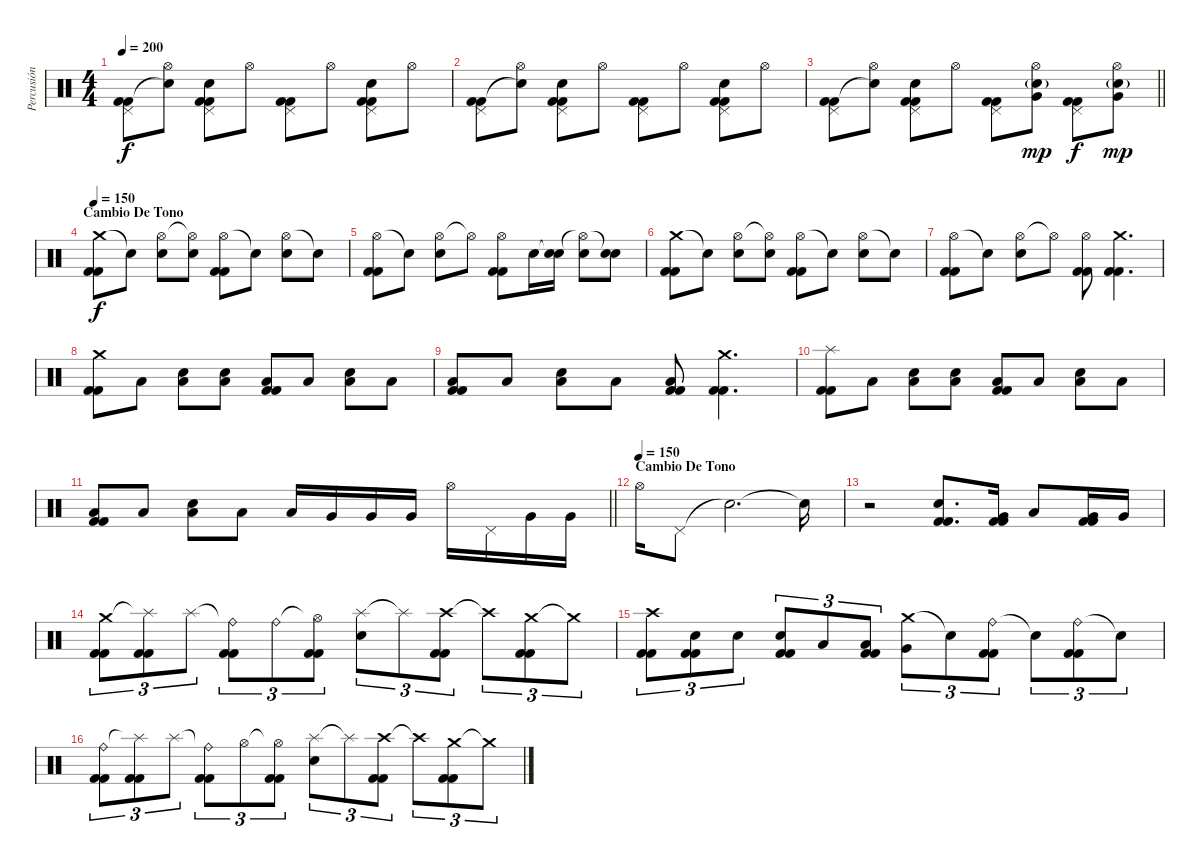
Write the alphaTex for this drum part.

\track ("Percusión" "Percusión") {instrument percussion}
\staff {score}
\articulation defaults
\ts (4 4)
\tempo 200
\clef neutral
\ks c
("Pedal Hi-Hat (hit)" "Kick (hit) 2" "Kick (hit) 2").8{dy f} ("Hi-Hat (open)" "Snare (hit)"{t}).8 ("Pedal Hi-Hat (hit)" "Electric Snare (hit)" "Kick (hit) 2" "Kick (hit) 2").8 "Hi-Hat (open)".8 ("Pedal Hi-Hat (hit)" "Kick (hit) 2" "Kick (hit) 2").8 "Hi-Hat (open)".8 ("Pedal Hi-Hat (hit)" "Electric Snare (hit)" "Kick (hit) 2" "Kick (hit) 2").8 "Hi-Hat (open)".8 |
("Pedal Hi-Hat (hit)" "Kick (hit) 2" "Kick (hit) 2").8 ("Hi-Hat (open)" "Snare (hit)"{t}).8 ("Pedal Hi-Hat (hit)" "Electric Snare (hit)" "Kick (hit) 2" "Kick (hit) 2").8 "Hi-Hat (open)".8 ("Pedal Hi-Hat (hit)" "Kick (hit) 2" "Kick (hit) 2").8 "Hi-Hat (open)".8 ("Pedal Hi-Hat (hit)" "Electric Snare (hit)" "Kick (hit) 2" "Kick (hit) 2").8 "Hi-Hat (open)".8 |
\barLineRight lightlight
("Pedal Hi-Hat (hit)" "Kick (hit) 2" "Kick (hit) 2").8 ("Hi-Hat (open)" "Snare (hit)"{t}).8 ("Pedal Hi-Hat (hit)" "Electric Snare (hit)" "Kick (hit) 2" "Kick (hit) 2").8 "Hi-Hat (open)".8 ("Pedal Hi-Hat (hit)" "Kick (hit) 2" "Kick (hit) 2").8 ("Hi-Hat (open)" "Very Low Tom (hit)" "Electric Snare (hit)"{g}).8{dy mp} ("Pedal Hi-Hat (hit)" "Kick (hit) 2" "Kick (hit) 2").8{dy f} ("Hi-Hat (open)" "Very Low Tom (hit)" "Electric Snare (hit)"{g}).8{dy mp} |
\section ("" "Cambio De Tono")
\tempo 150
("Crash medium (hit)" "Kick (hit) 2" "Kick (hit) 2").8{dy f} "Snare (hit)"{t}.8 ("Hi-Hat (open)" "Electric Snare (hit)").8 ("Hi-Hat (open)"{t} "Electric Snare (hit)").8 ("Hi-Hat (open)" "Kick (hit) 2" "Kick (hit) 2").8 "Snare (hit)"{t}.8 ("Hi-Hat (open)" "Electric Snare (hit)").8 "Snare (hit)"{t}.8 |
("Hi-Hat (open)" "Kick (hit) 2" "Kick (hit) 2").8 "Snare (hit)"{t}.8 ("Hi-Hat (open)" "Electric Snare (hit)").8 "Hi-Hat (open)"{t}.8 ("Hi-Hat (open)" "Kick (hit) 2" "Kick (hit) 2").8 "Electric Snare (hit)".16 ("Snare (hit)"{t} "Electric Snare (hit)").16 ("Hi-Hat (open)"{t} "Electric Snare (hit)").8 ("Snare (hit)"{t} "Electric Snare (hit)").8 |
("Crash medium (hit)" "Kick (hit) 2" "Kick (hit) 2").8 "Snare (hit)"{t}.8 ("Hi-Hat (open)" "Electric Snare (hit)").8 ("Hi-Hat (open)"{t} "Electric Snare (hit)").8 ("Hi-Hat (open)" "Kick (hit) 2" "Kick (hit) 2").8 "Snare (hit)"{t}.8 ("Hi-Hat (open)" "Electric Snare (hit)").8 "Snare (hit)"{t}.8 |
("Hi-Hat (open)" "Kick (hit) 2" "Kick (hit) 2").8 "Snare (hit)"{t}.8 ("Hi-Hat (open)" "Electric Snare (hit)").8 "Hi-Hat (open)"{t}.8 ("Hi-Hat (open)" "Kick (hit) 2" "Kick (hit) 2").8 ("Crash medium (hit)" "Kick (hit) 2" "Kick (hit) 2").4{d} |
("Crash medium (hit)" "Kick (hit) 2" "Kick (hit) 2").8 "Low Floor Tom (hit)".8 ("Low Floor Tom (hit)" "Electric Snare (hit)").8 ("Low Floor Tom (hit)" "Electric Snare (hit)").8 ("Low Floor Tom (hit)" "Kick (hit) 2" "Kick (hit) 2").8 "Low Floor Tom (hit)".8 ("Low Floor Tom (hit)" "Electric Snare (hit)").8 "Low Floor Tom (hit)".8 |
("Low Floor Tom (hit)" "Kick (hit) 2" "Kick (hit) 2").8 "Low Floor Tom (hit)".8 ("Low Floor Tom (hit)" "Electric Snare (hit)").8 "Low Floor Tom (hit)".8 ("Low Floor Tom (hit)" "Kick (hit) 2" "Kick (hit) 2").8 ("Crash medium (hit)" "Kick (hit) 2" "Kick (hit) 2").4{d} |
("Splash (hit)" "Kick (hit) 2" "Kick (hit) 2").8 "Low Floor Tom (hit)".8 ("Low Floor Tom (hit)" "Electric Snare (hit)").8 ("Low Floor Tom (hit)" "Electric Snare (hit)").8 ("Low Floor Tom (hit)" "Kick (hit) 2" "Kick (hit) 2").8 "Low Floor Tom (hit)".8 ("Low Floor Tom (hit)" "Electric Snare (hit)").8 "Low Floor Tom (hit)".8 |
\barLineRight lightlight
("Low Floor Tom (hit)" "Kick (hit) 2" "Kick (hit) 2").8 "Low Floor Tom (hit)".8 ("Low Floor Tom (hit)" "Electric Snare (hit)").8 "Low Floor Tom (hit)".8 "Low Floor Tom (hit)".16 "Very Low Tom (hit)".16 "Very Low Tom (hit)".16 "Very Low Tom (hit)".16 "Hi-Hat (open)".16 "Pedal Hi-Hat (hit)".16 "Very Low Tom (hit)".16 "Very Low Tom (hit)".16 |
\section ("" "Cambio De Tono")
\tempo (150)
"Hi-Hat (open)".16 "Pedal Hi-Hat (hit)".8 "Snare (hit)"{t}.2{d} "Snare (hit)"{t}.16 |
r.2 ("Electric Snare (hit)" "Kick (hit) 2" "Kick (hit) 2").8{d} ("Very Low Tom (hit)" "Kick (hit) 2" "Kick (hit) 2").16 "Low Tom (hit)".8 ("Very Low Tom (hit)" "Kick (hit) 2" "Kick (hit) 2").16 "Very Low Tom (hit)".16 |
("Crash medium (hit)" "Kick (hit) 2" "Kick (hit) 2").8{tu (3 2)} ("Splash (hit)"{t} "Kick (hit) 2" "Kick (hit) 2").8{tu (3 2)} "Splash (hit)".8{tu (3 2)} ("Ride (bell)"{t} "Kick (hit) 2" "Kick (hit) 2").8{tu (3 2)} "Ride (bell)".8{tu (3 2)} ("Hi-Hat (open)"{t} "Kick (hit) 2" "Kick (hit) 2").8{tu (3 2)} ("Splash (hit)" "Electric Snare (hit)").8{tu (3 2)} "Splash (hit)"{t}.8{tu (3 2)} ("Crash high (hit)" "Kick (hit) 2" "Kick (hit) 2").8{tu (3 2)} "Crash high (hit)"{t}.8{tu (3 2)} ("Crash medium (hit)" "Kick (hit) 2" "Kick (hit) 2").8{tu (3 2)} "Crash medium (hit)"{t}.8{tu (3 2)} |
("Crash high (hit)" "Kick (hit) 2" "Kick (hit) 2").8{tu (3 2)} ("Electric Snare (hit)" "Kick (hit) 2" "Kick (hit) 2").8{tu (3 2)} "Electric Snare (hit)".8{tu (3 2)} ("Electric Snare (hit)" "Kick (hit) 2" "Kick (hit) 2").8{tu (3 2)} "Low Tom (hit)".8{tu (3 2)} ("Low Tom (hit)" "Kick (hit) 2" "Kick (hit) 2").8{tu (3 2)} ("Crash medium (hit)" "Very Low Tom (hit)").8{tu (3 2)} "Snare (hit)"{t}.8{tu (3 2)} ("Ride (bell)" "Kick (hit) 2" "Kick (hit) 2").8{tu (3 2)} "Snare (hit)"{t}.8{tu (3 2)} ("Ride (bell)" "Kick (hit) 2" "Kick (hit) 2").8{tu (3 2)} "Snare (hit)"{t}.8{tu (3 2)} |
("Ride (bell)" "Kick (hit) 2" "Kick (hit) 2").8{tu (3 2)} ("Splash (hit)"{t} "Kick (hit) 2" "Kick (hit) 2").8{tu (3 2)} "Splash (hit)".8{tu (3 2)} ("Ride (bell)"{t} "Kick (hit) 2" "Kick (hit) 2").8{tu (3 2)} "Hi-Hat (open)".8{tu (3 2)} ("Hi-Hat (open)"{t} "Kick (hit) 2" "Kick (hit) 2").8{tu (3 2)} ("Splash (hit)" "Electric Snare (hit)").8{tu (3 2)} "Splash (hit)"{t}.8{tu (3 2)} ("Crash high (hit)" "Kick (hit) 2" "Kick (hit) 2").8{tu (3 2)} "Crash high (hit)"{t}.8{tu (3 2)} ("Crash medium (hit)" "Kick (hit) 2" "Kick (hit) 2").8{tu (3 2)} "Crash medium (hit)"{t}.8{tu (3 2)}
